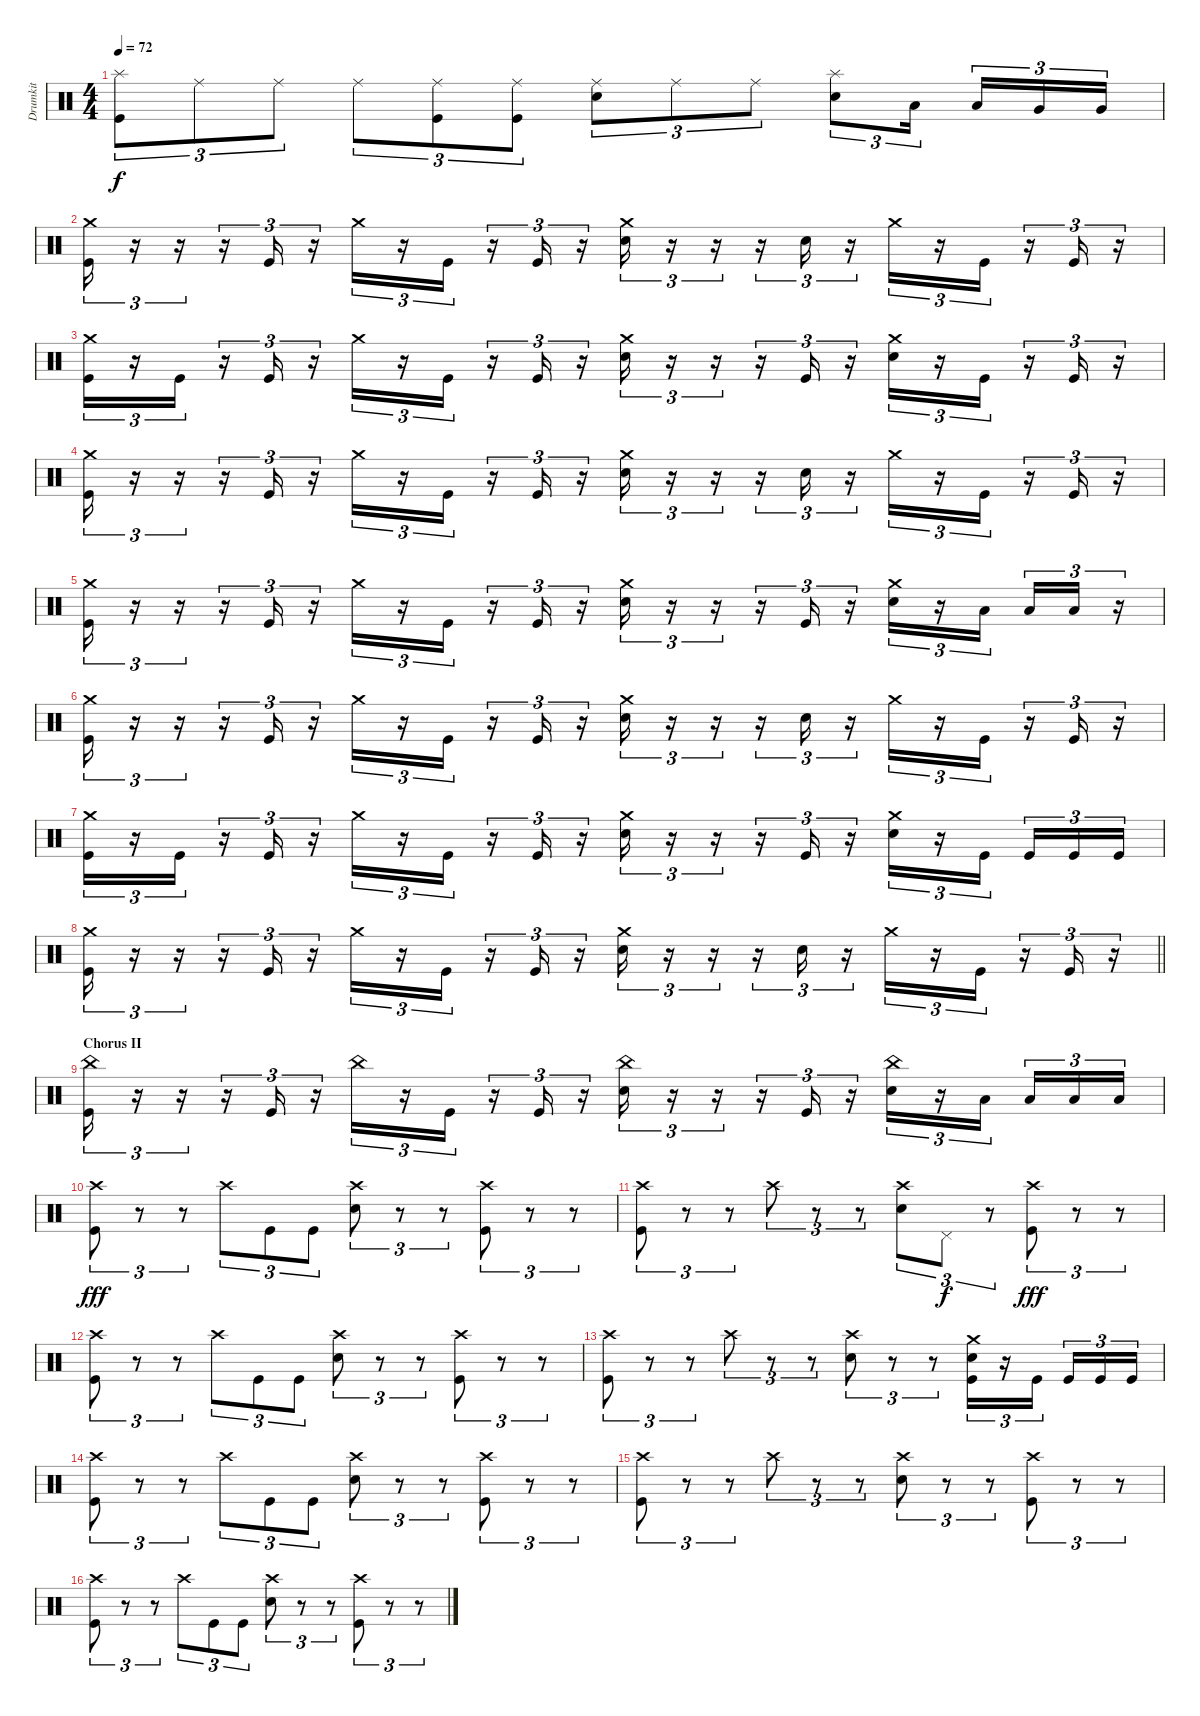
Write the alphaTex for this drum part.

\track ("Drumkit" "Drumkit") {instrument percussion}
\staff {score}
\articulation defaults
\ts (4 4)
\tempo 72
\clef neutral
\ks c
("Kick (hit)" "Splash (hit)").8{tu (3 2) dy f} "Ride (middle)".8{tu (3 2)} "Ride (middle)".8{tu (3 2)} "Ride (middle)".8{tu (3 2)} ("Ride (middle)" "Kick (hit)").8{tu (3 2)} ("Ride (middle)" "Kick (hit)").8{tu (3 2)} ("Snare (hit) 2" "Ride (middle)").8{tu (3 2)} "Ride (middle)".8{tu (3 2)} "Ride (middle)".8{tu (3 2)} ("Snare (hit) 2" "Splash (hit)").8{tu (3 2)} "Low Tom (hit)".16{tu (3 2) beam splitsecondary} "Low Tom (hit)".16{tu (3 2)} "Very Low Tom (hit)".16{tu (3 2)} "Very Low Tom (hit)".16{tu (3 2)} |
("Kick (hit)" "Crash medium (hit)").16{tu (3 2)} r.16{tu (3 2)} r.16{tu (3 2)} r.16{tu (3 2)} "Kick (hit)".16{tu (3 2)} r.16{tu (3 2)} "Crash medium (hit)".16{tu (3 2)} r.16{tu (3 2)} "Kick (hit)".16{tu (3 2)} r.16{tu (3 2)} "Kick (hit)".16{tu (3 2)} r.16{tu (3 2)} ("Snare (hit) 2" "Crash medium (hit)").16{tu (3 2)} r.16{tu (3 2)} r.16{tu (3 2)} r.16{tu (3 2)} "Snare (hit) 2".16{tu (3 2)} r.16{tu (3 2)} "Crash medium (hit)".16{tu (3 2)} r.16{tu (3 2)} "Kick (hit)".16{tu (3 2)} r.16{tu (3 2)} "Kick (hit)".16{tu (3 2)} r.16{tu (3 2)} |
("Kick (hit)" "Crash medium (hit)").16{tu (3 2)} r.16{tu (3 2)} "Kick (hit)".16{tu (3 2)} r.16{tu (3 2)} "Kick (hit)".16{tu (3 2)} r.16{tu (3 2)} "Crash medium (hit)".16{tu (3 2)} r.16{tu (3 2)} "Kick (hit)".16{tu (3 2)} r.16{tu (3 2)} "Kick (hit)".16{tu (3 2)} r.16{tu (3 2)} ("Snare (hit) 2" "Crash medium (hit)").16{tu (3 2)} r.16{tu (3 2)} r.16{tu (3 2)} r.16{tu (3 2)} "Kick (hit)".16{tu (3 2)} r.16{tu (3 2)} ("Snare (hit) 2" "Crash medium (hit)").16{tu (3 2)} r.16{tu (3 2)} "Kick (hit)".16{tu (3 2)} r.16{tu (3 2)} "Kick (hit)".16{tu (3 2)} r.16{tu (3 2)} |
("Kick (hit)" "Crash medium (hit)").16{tu (3 2)} r.16{tu (3 2)} r.16{tu (3 2)} r.16{tu (3 2)} "Kick (hit)".16{tu (3 2)} r.16{tu (3 2)} "Crash medium (hit)".16{tu (3 2)} r.16{tu (3 2)} "Kick (hit)".16{tu (3 2)} r.16{tu (3 2)} "Kick (hit)".16{tu (3 2)} r.16{tu (3 2)} ("Snare (hit) 2" "Crash medium (hit)").16{tu (3 2)} r.16{tu (3 2)} r.16{tu (3 2)} r.16{tu (3 2)} "Snare (hit) 2".16{tu (3 2)} r.16{tu (3 2)} "Crash medium (hit)".16{tu (3 2)} r.16{tu (3 2)} "Kick (hit)".16{tu (3 2)} r.16{tu (3 2)} "Kick (hit)".16{tu (3 2)} r.16{tu (3 2)} |
("Kick (hit)" "Crash medium (hit)").16{tu (3 2)} r.16{tu (3 2)} r.16{tu (3 2)} r.16{tu (3 2)} "Kick (hit)".16{tu (3 2)} r.16{tu (3 2)} "Crash medium (hit)".16{tu (3 2)} r.16{tu (3 2)} "Kick (hit)".16{tu (3 2)} r.16{tu (3 2)} "Kick (hit)".16{tu (3 2)} r.16{tu (3 2)} ("Snare (hit) 2" "Crash medium (hit)").16{tu (3 2)} r.16{tu (3 2)} r.16{tu (3 2)} r.16{tu (3 2)} "Kick (hit)".16{tu (3 2)} r.16{tu (3 2)} ("Snare (hit) 2" "Crash medium (hit)").16{tu (3 2)} r.16{tu (3 2)} "Low Tom (hit)".16{tu (3 2) beam splitsecondary} "Low Tom (hit)".16{tu (3 2)} "Low Floor Tom (hit)".16{tu (3 2)} r.16{tu (3 2)} |
("Kick (hit)" "Crash medium (hit)").16{tu (3 2)} r.16{tu (3 2)} r.16{tu (3 2)} r.16{tu (3 2)} "Kick (hit)".16{tu (3 2)} r.16{tu (3 2)} "Crash medium (hit)".16{tu (3 2)} r.16{tu (3 2)} "Kick (hit)".16{tu (3 2)} r.16{tu (3 2)} "Kick (hit)".16{tu (3 2)} r.16{tu (3 2)} ("Snare (hit) 2" "Crash medium (hit)").16{tu (3 2)} r.16{tu (3 2)} r.16{tu (3 2)} r.16{tu (3 2)} "Snare (hit) 2".16{tu (3 2)} r.16{tu (3 2)} "Crash medium (hit)".16{tu (3 2)} r.16{tu (3 2)} "Kick (hit)".16{tu (3 2)} r.16{tu (3 2)} "Kick (hit)".16{tu (3 2)} r.16{tu (3 2)} |
("Kick (hit)" "Crash medium (hit)").16{tu (3 2)} r.16{tu (3 2)} "Kick (hit)".16{tu (3 2)} r.16{tu (3 2)} "Kick (hit)".16{tu (3 2)} r.16{tu (3 2)} "Crash medium (hit)".16{tu (3 2)} r.16{tu (3 2)} "Kick (hit)".16{tu (3 2)} r.16{tu (3 2)} "Kick (hit)".16{tu (3 2)} r.16{tu (3 2)} ("Snare (hit) 2" "Crash medium (hit)").16{tu (3 2)} r.16{tu (3 2)} r.16{tu (3 2)} r.16{tu (3 2)} "Kick (hit)".16{tu (3 2)} r.16{tu (3 2)} ("Snare (hit) 2" "Crash medium (hit)").16{tu (3 2)} r.16{tu (3 2)} "Kick (hit)".16{tu (3 2) beam splitsecondary} "Kick (hit)".16{tu (3 2)} "Kick (hit)".16{tu (3 2)} "Kick (hit)".16{tu (3 2)} |
\barLineRight lightlight
("Kick (hit)" "Crash medium (hit)").16{tu (3 2)} r.16{tu (3 2)} r.16{tu (3 2)} r.16{tu (3 2)} "Kick (hit)".16{tu (3 2)} r.16{tu (3 2)} "Crash medium (hit)".16{tu (3 2)} r.16{tu (3 2)} "Kick (hit)".16{tu (3 2)} r.16{tu (3 2)} "Kick (hit)".16{tu (3 2)} r.16{tu (3 2)} ("Snare (hit) 2" "Crash medium (hit)").16{tu (3 2)} r.16{tu (3 2)} r.16{tu (3 2)} r.16{tu (3 2)} "Snare (hit) 2".16{tu (3 2)} r.16{tu (3 2)} "Crash medium (hit)".16{tu (3 2)} r.16{tu (3 2)} "Kick (hit)".16{tu (3 2)} r.16{tu (3 2)} "Kick (hit)".16{tu (3 2)} r.16{tu (3 2)} |
\section ("" "Chorus II")
("Kick (hit)" "China (hit)").16{tu (3 2)} r.16{tu (3 2)} r.16{tu (3 2)} r.16{tu (3 2)} "Kick (hit)".16{tu (3 2)} r.16{tu (3 2)} "China (hit)".16{tu (3 2)} r.16{tu (3 2)} "Kick (hit)".16{tu (3 2)} r.16{tu (3 2)} "Kick (hit)".16{tu (3 2)} r.16{tu (3 2)} ("Snare (hit) 2" "China (hit)").16{tu (3 2)} r.16{tu (3 2)} r.16{tu (3 2)} r.16{tu (3 2)} "Kick (hit)".16{tu (3 2)} r.16{tu (3 2)} ("China (hit)" "Snare (hit) 2").16{tu (3 2)} r.16{tu (3 2)} "Low Tom (hit)".16{tu (3 2) beam splitsecondary} "Low Tom (hit)".16{tu (3 2)} "Low Floor Tom (hit)".16{tu (3 2)} "Low Floor Tom (hit)".16{tu (3 2)} |
("Kick (hit)" "Crash high (hit)").8{tu (3 2) dy fff} r.8{tu (3 2)} r.8{tu (3 2)} "Crash high (hit)".8{tu (3 2)} "Kick (hit)".8{tu (3 2)} "Kick (hit)".8{tu (3 2)} ("Snare (hit) 2" "Crash high (hit)").8{tu (3 2)} r.8{tu (3 2)} r.8{tu (3 2)} ("Kick (hit)" "Crash high (hit)").8{tu (3 2)} r.8{tu (3 2)} r.8{tu (3 2)} |
("Kick (hit)" "Crash high (hit)").8{tu (3 2)} r.8{tu (3 2)} r.8{tu (3 2)} "Crash high (hit)".8{tu (3 2)} r.8{tu (3 2)} r.8{tu (3 2)} ("Snare (hit) 2" "Crash high (hit)").8{tu (3 2)} "Pedal Hi-Hat (hit)".8{tu (3 2) dy f} r.8{tu (3 2)} ("Kick (hit)" "Crash high (hit)").8{tu (3 2) dy fff} r.8{tu (3 2)} r.8{tu (3 2)} |
("Kick (hit)" "Crash high (hit)").8{tu (3 2)} r.8{tu (3 2)} r.8{tu (3 2)} "Crash high (hit)".8{tu (3 2)} "Kick (hit)".8{tu (3 2)} "Kick (hit)".8{tu (3 2)} ("Snare (hit) 2" "Crash high (hit)").8{tu (3 2)} r.8{tu (3 2)} r.8{tu (3 2)} ("Kick (hit)" "Crash high (hit)").8{tu (3 2)} r.8{tu (3 2)} r.8{tu (3 2)} |
("Kick (hit)" "Crash high (hit)").8{tu (3 2)} r.8{tu (3 2)} r.8{tu (3 2)} "Crash high (hit)".8{tu (3 2)} r.8{tu (3 2)} r.8{tu (3 2)} ("Snare (hit) 2" "Crash high (hit)").8{tu (3 2)} r.8{tu (3 2)} r.8{tu (3 2)} ("Kick (hit)" "Crash medium (hit)" "Snare (hit) 2").16{tu (3 2)} r.16{tu (3 2)} "Kick (hit)".16{tu (3 2) beam splitsecondary} "Kick (hit)".16{tu (3 2)} "Kick (hit)".16{tu (3 2)} "Kick (hit)".16{tu (3 2)} |
("Kick (hit)" "Crash high (hit)").8{tu (3 2)} r.8{tu (3 2)} r.8{tu (3 2)} "Crash high (hit)".8{tu (3 2)} "Kick (hit)".8{tu (3 2)} "Kick (hit)".8{tu (3 2)} ("Snare (hit) 2" "Crash high (hit)").8{tu (3 2)} r.8{tu (3 2)} r.8{tu (3 2)} ("Kick (hit)" "Crash high (hit)").8{tu (3 2)} r.8{tu (3 2)} r.8{tu (3 2)} |
("Kick (hit)" "Crash high (hit)").8{tu (3 2)} r.8{tu (3 2)} r.8{tu (3 2)} "Crash high (hit)".8{tu (3 2)} r.8{tu (3 2)} r.8{tu (3 2)} ("Snare (hit) 2" "Crash high (hit)").8{tu (3 2)} r.8{tu (3 2)} r.8{tu (3 2)} ("Kick (hit)" "Crash high (hit)").8{tu (3 2)} r.8{tu (3 2)} r.8{tu (3 2)} |
("Kick (hit)" "Crash high (hit)").8{tu (3 2)} r.8{tu (3 2)} r.8{tu (3 2)} "Crash high (hit)".8{tu (3 2)} "Kick (hit)".8{tu (3 2)} "Kick (hit)".8{tu (3 2)} ("Snare (hit) 2" "Crash high (hit)").8{tu (3 2)} r.8{tu (3 2)} r.8{tu (3 2)} ("Kick (hit)" "Crash high (hit)").8{tu (3 2)} r.8{tu (3 2)} r.8{tu (3 2)}
